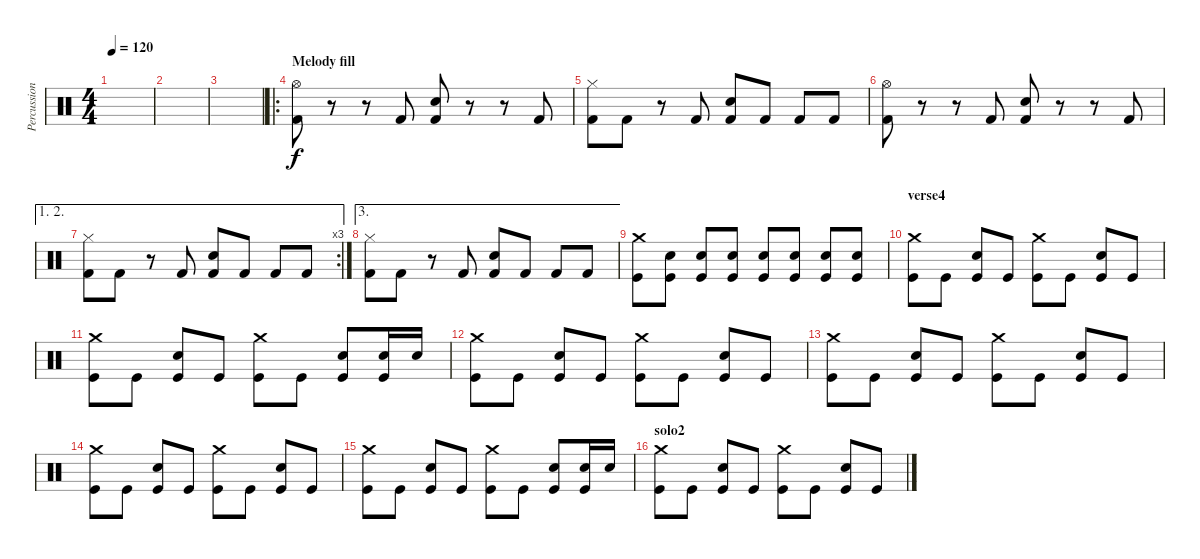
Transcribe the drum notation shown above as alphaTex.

\track ("Percussion" "Percussion") {instrument percussion}
\staff {score}
\articulation defaults
\ts (4 4)
\tempo 120
\clef neutral
\ks c
|
|
|
\ro
\section ("" "Melody fill")
("Kick (hit) 2" "Hi-Hat (open)").8 r.8 r.8 "Kick (hit) 2".8 ("Kick (hit) 2" "Snare (hit) 2").8 r.8 r.8 "Kick (hit) 2".8 |
("Kick (hit) 2" "Hi-Hat (closed)").8 "Kick (hit) 2".8 r.8 "Kick (hit) 2".8 ("Kick (hit) 2" "Snare (hit) 2").8 "Kick (hit) 2".8 "Kick (hit) 2".8 "Kick (hit) 2".8 |
("Kick (hit) 2" "Hi-Hat (open)").8 r.8 r.8 "Kick (hit) 2".8 ("Kick (hit) 2" "Snare (hit) 2").8 r.8 r.8 "Kick (hit) 2".8 |
\ae (1 2)
\rc 3
("Kick (hit) 2" "Hi-Hat (closed)").8 "Kick (hit) 2".8 r.8 "Kick (hit) 2".8 ("Kick (hit) 2" "Snare (hit) 2").8 "Kick (hit) 2".8 "Kick (hit) 2".8 "Kick (hit) 2".8 |
\ae 3
("Kick (hit) 2" "Hi-Hat (closed)").8 "Kick (hit) 2".8 r.8 "Kick (hit) 2".8 ("Kick (hit) 2" "Snare (hit) 2").8 "Kick (hit) 2".8 "Kick (hit) 2".8 "Kick (hit) 2".8 |
("Crash medium (hit)" "Kick (hit)").8 ("Snare (hit) 2" "Kick (hit)").8 ("Snare (hit) 2" "Kick (hit)").8 ("Snare (hit) 2" "Kick (hit)").8 ("Snare (hit) 2" "Kick (hit)").8 ("Snare (hit) 2" "Kick (hit)").8 ("Snare (hit) 2" "Kick (hit)").8 ("Snare (hit) 2" "Kick (hit)").8 |
\section ("" "verse4")
("Crash medium (hit)" "Kick (hit)").8 "Kick (hit)".8 ("Snare (hit) 2" "Kick (hit)").8 "Kick (hit)".8 ("Crash medium (hit)" "Kick (hit)").8 "Kick (hit)".8 ("Snare (hit) 2" "Kick (hit)").8 "Kick (hit)".8 |
("Crash medium (hit)" "Kick (hit)").8 "Kick (hit)".8 ("Snare (hit) 2" "Kick (hit)").8 "Kick (hit)".8 ("Crash medium (hit)" "Kick (hit)").8 "Kick (hit)".8 ("Snare (hit) 2" "Kick (hit)").8 ("Snare (hit) 2" "Kick (hit)").16 "Snare (hit) 2".16 |
("Crash medium (hit)" "Kick (hit)").8 "Kick (hit)".8 ("Snare (hit) 2" "Kick (hit)").8 "Kick (hit)".8 ("Crash medium (hit)" "Kick (hit)").8 "Kick (hit)".8 ("Snare (hit) 2" "Kick (hit)").8 "Kick (hit)".8 |
("Crash medium (hit)" "Kick (hit)").8 "Kick (hit)".8 ("Snare (hit) 2" "Kick (hit)").8 "Kick (hit)".8 ("Crash medium (hit)" "Kick (hit)").8 "Kick (hit)".8 ("Snare (hit) 2" "Kick (hit)").8 "Kick (hit)".8 |
("Crash medium (hit)" "Kick (hit)").8 "Kick (hit)".8 ("Snare (hit) 2" "Kick (hit)").8 "Kick (hit)".8 ("Crash medium (hit)" "Kick (hit)").8 "Kick (hit)".8 ("Snare (hit) 2" "Kick (hit)").8 "Kick (hit)".8 |
("Crash medium (hit)" "Kick (hit)").8 "Kick (hit)".8 ("Snare (hit) 2" "Kick (hit)").8 "Kick (hit)".8 ("Crash medium (hit)" "Kick (hit)").8 "Kick (hit)".8 ("Snare (hit) 2" "Kick (hit)").8 ("Snare (hit) 2" "Kick (hit)").16 "Snare (hit) 2".16 |
\section ("" "solo2")
("Crash medium (hit)" "Kick (hit)").8 "Kick (hit)".8 ("Snare (hit) 2" "Kick (hit)").8 "Kick (hit)".8 ("Crash medium (hit)" "Kick (hit)").8 "Kick (hit)".8 ("Snare (hit) 2" "Kick (hit)").8 "Kick (hit)".8
